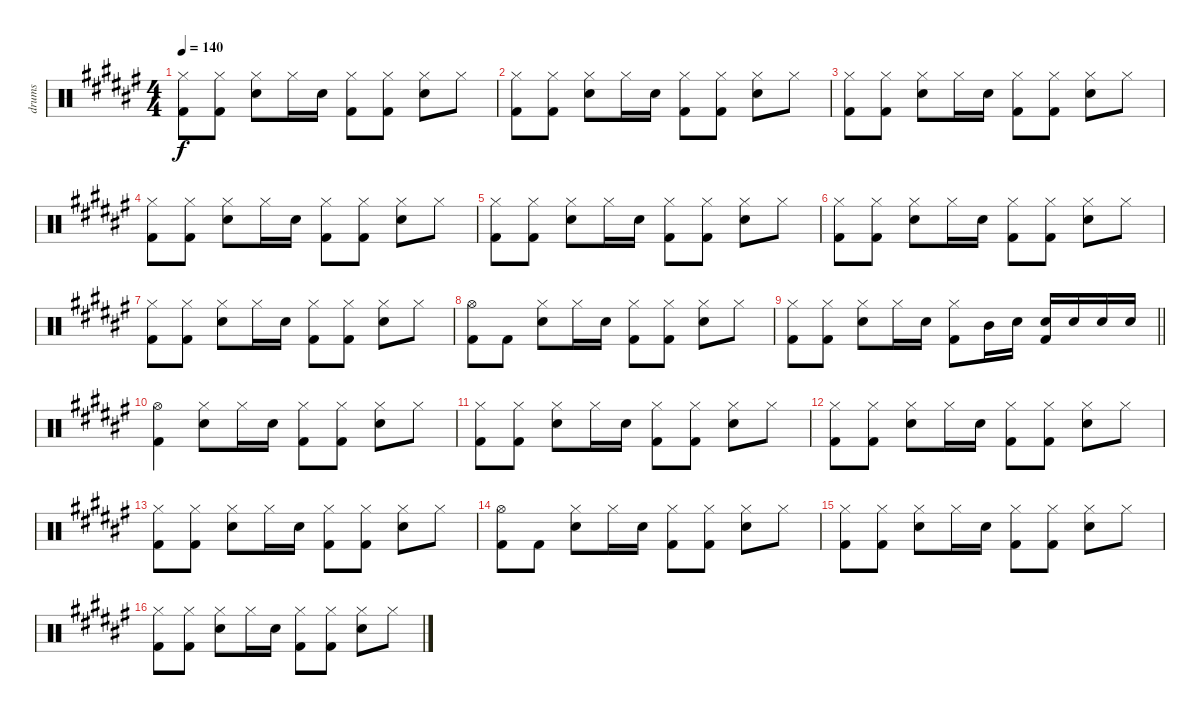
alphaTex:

\track ("drums" "drums") {instrument percussion}
\staff {score}
\articulation defaults
\ts (4 4)
\tempo 140
\clef neutral
\ks d#minor
("Hi-Hat (closed)" "Kick (hit) 2").8{dy f} ("Hi-Hat (closed)" "Kick (hit) 2").8 ("Hi-Hat (closed)" "Snare (hit) 2").8 "Hi-Hat (closed)".16 "Snare (hit) 2".16 ("Hi-Hat (closed)" "Kick (hit) 2").8 ("Hi-Hat (closed)" "Kick (hit) 2").8 ("Hi-Hat (closed)" "Snare (hit) 2").8 "Hi-Hat (closed)".8 |
("Hi-Hat (closed)" "Kick (hit) 2").8 ("Hi-Hat (closed)" "Kick (hit) 2").8 ("Hi-Hat (closed)" "Snare (hit) 2").8 "Hi-Hat (closed)".16 "Snare (hit) 2".16 ("Hi-Hat (closed)" "Kick (hit) 2").8 ("Hi-Hat (closed)" "Kick (hit) 2").8 ("Hi-Hat (closed)" "Snare (hit) 2").8 "Hi-Hat (closed)".8 |
("Hi-Hat (closed)" "Kick (hit) 2").8 ("Hi-Hat (closed)" "Kick (hit) 2").8 ("Hi-Hat (closed)" "Snare (hit) 2").8 "Hi-Hat (closed)".16 "Snare (hit) 2".16 ("Hi-Hat (closed)" "Kick (hit) 2").8 ("Hi-Hat (closed)" "Kick (hit) 2").8 ("Hi-Hat (closed)" "Snare (hit) 2").8 "Hi-Hat (closed)".8 |
("Hi-Hat (closed)" "Kick (hit) 2").8 ("Hi-Hat (closed)" "Kick (hit) 2").8 ("Hi-Hat (closed)" "Snare (hit) 2").8 "Hi-Hat (closed)".16 "Snare (hit) 2".16 ("Hi-Hat (closed)" "Kick (hit) 2").8 ("Hi-Hat (closed)" "Kick (hit) 2").8 ("Hi-Hat (closed)" "Snare (hit) 2").8 "Hi-Hat (closed)".8 |
("Hi-Hat (closed)" "Kick (hit) 2").8 ("Hi-Hat (closed)" "Kick (hit) 2").8 ("Hi-Hat (closed)" "Snare (hit) 2").8 "Hi-Hat (closed)".16 "Snare (hit) 2".16 ("Hi-Hat (closed)" "Kick (hit) 2").8 ("Hi-Hat (closed)" "Kick (hit) 2").8 ("Hi-Hat (closed)" "Snare (hit) 2").8 "Hi-Hat (closed)".8 |
("Hi-Hat (closed)" "Kick (hit) 2").8 ("Hi-Hat (closed)" "Kick (hit) 2").8 ("Hi-Hat (closed)" "Snare (hit) 2").8 "Hi-Hat (closed)".16 "Snare (hit) 2".16 ("Hi-Hat (closed)" "Kick (hit) 2").8 ("Hi-Hat (closed)" "Kick (hit) 2").8 ("Hi-Hat (closed)" "Snare (hit) 2").8 "Hi-Hat (closed)".8 |
("Hi-Hat (closed)" "Kick (hit) 2").8 ("Hi-Hat (closed)" "Kick (hit) 2").8 ("Hi-Hat (closed)" "Snare (hit) 2").8 "Hi-Hat (closed)".16 "Snare (hit) 2".16 ("Hi-Hat (closed)" "Kick (hit) 2").8 ("Hi-Hat (closed)" "Kick (hit) 2").8 ("Hi-Hat (closed)" "Snare (hit) 2").8 "Hi-Hat (closed)".8 |
("Hi-Hat (open)" "Kick (hit) 2").8 "Kick (hit) 2".8 ("Hi-Hat (closed)" "Snare (hit) 2").8 "Hi-Hat (closed)".16 "Snare (hit) 2".16 ("Hi-Hat (closed)" "Kick (hit) 2").8 ("Hi-Hat (closed)" "Kick (hit) 2").8 ("Hi-Hat (closed)" "Snare (hit) 2").8 "Hi-Hat (closed)".8 |
\barLineRight lightlight
("Hi-Hat (closed)" "Kick (hit) 2").8 ("Hi-Hat (closed)" "Kick (hit) 2").8 ("Hi-Hat (closed)" "Snare (hit) 2").8 "Hi-Hat (closed)".16 "Snare (hit) 2".16 ("Hi-Hat (closed)" "Kick (hit) 2").8 "Mid Tom (hit)".16 "Snare (hit) 2".16 ("Snare (hit) 2" "Kick (hit) 2").16 "Snare (hit) 2".16 "Snare (hit) 2".16 "Snare (hit) 2".16 |
("Hi-Hat (open)" "Kick (hit) 2").4 ("Hi-Hat (closed)" "Snare (hit) 2").8 "Hi-Hat (closed)".16 "Snare (hit) 2".16 ("Hi-Hat (closed)" "Kick (hit) 2").8 ("Hi-Hat (closed)" "Kick (hit) 2").8 ("Hi-Hat (closed)" "Snare (hit) 2").8 "Hi-Hat (closed)".8 |
("Hi-Hat (closed)" "Kick (hit) 2").8 ("Hi-Hat (closed)" "Kick (hit) 2").8 ("Hi-Hat (closed)" "Snare (hit) 2").8 "Hi-Hat (closed)".16 "Snare (hit) 2".16 ("Hi-Hat (closed)" "Kick (hit) 2").8 ("Hi-Hat (closed)" "Kick (hit) 2").8 ("Hi-Hat (closed)" "Snare (hit) 2").8 "Hi-Hat (closed)".8 |
("Hi-Hat (closed)" "Kick (hit) 2").8 ("Hi-Hat (closed)" "Kick (hit) 2").8 ("Hi-Hat (closed)" "Snare (hit) 2").8 "Hi-Hat (closed)".16 "Snare (hit) 2".16 ("Hi-Hat (closed)" "Kick (hit) 2").8 ("Hi-Hat (closed)" "Kick (hit) 2").8 ("Hi-Hat (closed)" "Snare (hit) 2").8 "Hi-Hat (closed)".8 |
("Hi-Hat (closed)" "Kick (hit) 2").8 ("Hi-Hat (closed)" "Kick (hit) 2").8 ("Hi-Hat (closed)" "Snare (hit) 2").8 "Hi-Hat (closed)".16 "Snare (hit) 2".16 ("Hi-Hat (closed)" "Kick (hit) 2").8 ("Hi-Hat (closed)" "Kick (hit) 2").8 ("Hi-Hat (closed)" "Snare (hit) 2").8 "Hi-Hat (closed)".8 |
("Hi-Hat (open)" "Kick (hit) 2").8 "Kick (hit) 2".8 ("Hi-Hat (closed)" "Snare (hit) 2").8 "Hi-Hat (closed)".16 "Snare (hit) 2".16 ("Hi-Hat (closed)" "Kick (hit) 2").8 ("Hi-Hat (closed)" "Kick (hit) 2").8 ("Hi-Hat (closed)" "Snare (hit) 2").8 "Hi-Hat (closed)".8 |
("Hi-Hat (closed)" "Kick (hit) 2").8 ("Hi-Hat (closed)" "Kick (hit) 2").8 ("Hi-Hat (closed)" "Snare (hit) 2").8 "Hi-Hat (closed)".16 "Snare (hit) 2".16 ("Hi-Hat (closed)" "Kick (hit) 2").8 ("Hi-Hat (closed)" "Kick (hit) 2").8 ("Hi-Hat (closed)" "Snare (hit) 2").8 "Hi-Hat (closed)".8 |
("Hi-Hat (closed)" "Kick (hit) 2").8 ("Hi-Hat (closed)" "Kick (hit) 2").8 ("Hi-Hat (closed)" "Snare (hit) 2").8 "Hi-Hat (closed)".16 "Snare (hit) 2".16 ("Hi-Hat (closed)" "Kick (hit) 2").8 ("Hi-Hat (closed)" "Kick (hit) 2").8 ("Hi-Hat (closed)" "Snare (hit) 2").8 "Hi-Hat (closed)".8
